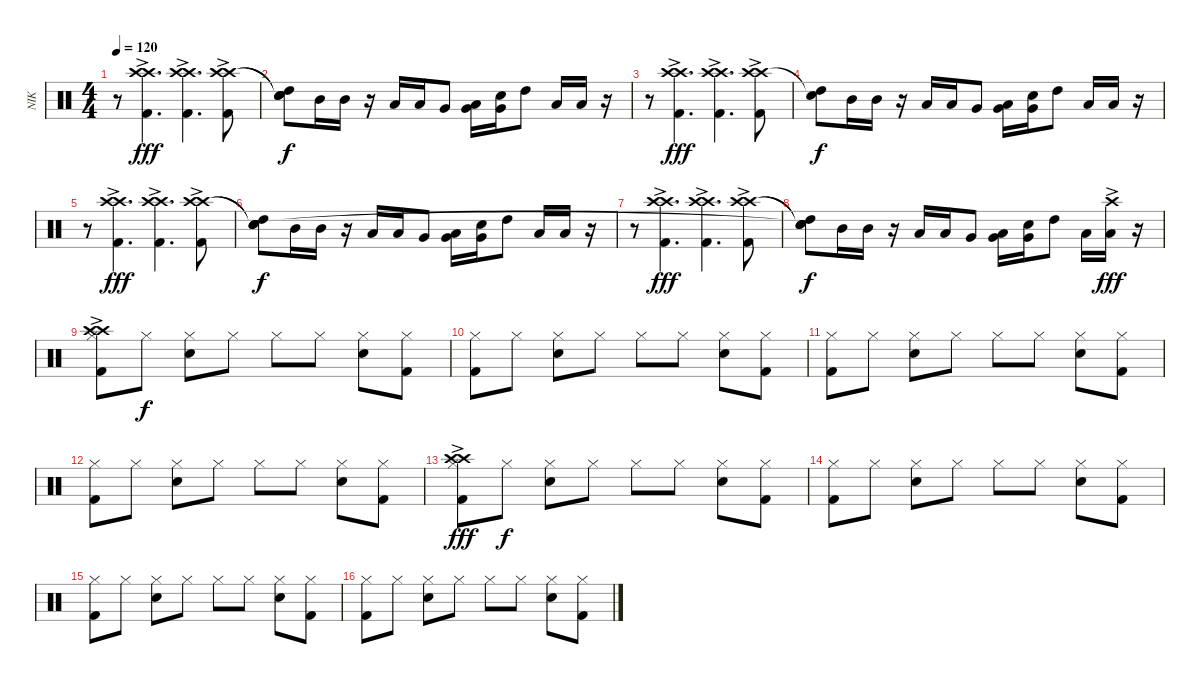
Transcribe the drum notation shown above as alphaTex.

\track ("NIK" "NIK") {instrument percussion}
\staff {score}
\articulation defaults
\ts (4 4)
\tempo 120
\clef neutral
\ks c
r.8{dy f} ("Crash high (hit)"{ac} "Crash high (hit)"{ac} "Kick (hit) 2"{ac}).4{d dy fff} ("Crash high (hit)"{ac} "Crash high (hit)"{ac} "Kick (hit) 2"{ac}).4{d} ("Crash high (hit)"{ac} "Crash high (hit)"{ac} "Kick (hit) 2"{ac}).8 |
("Snare (hit)"{t} "Snare (hit)"{t} "High Tom (hit)" "Snare (hit)").8{dy f} "Mid Tom (hit)".16 "Mid Tom (hit)".16 r.16 "Low Tom (hit)".16 "Low Tom (hit)".16 "Very Low Tom (hit)".8 ("Low Floor Tom (hit)" "Very Low Tom (hit)").16 ("Electric Snare (hit)" "Very Low Tom (hit)").16 "High Tom (hit)".8 "Low Floor Tom (hit)".16 "Low Floor Tom (hit)".16 r.16 |
r.8 ("Crash high (hit)"{ac} "Crash high (hit)"{ac} "Kick (hit) 2"{ac}).4{d dy fff} ("Crash high (hit)"{ac} "Crash high (hit)"{ac} "Kick (hit) 2"{ac}).4{d} ("Crash high (hit)"{ac} "Crash high (hit)"{ac} "Kick (hit) 2"{ac}).8 |
("High Tom (hit)" "Snare (hit)"{t}).8{dy f} "Mid Tom (hit)".16 "Mid Tom (hit)".16 r.16 "Low Tom (hit)".16 "Low Tom (hit)".16 "Very Low Tom (hit)".8 ("Low Floor Tom (hit)" "Very Low Tom (hit)").16 ("Electric Snare (hit)" "Very Low Tom (hit)").16 "High Tom (hit)".8 "Low Floor Tom (hit)".16 "Low Floor Tom (hit)".16 r.16 |
r.8 ("Crash high (hit)"{ac} "Crash high (hit)"{ac} "Kick (hit) 2"{ac}).4{d dy fff} ("Crash high (hit)"{ac} "Crash high (hit)"{ac} "Kick (hit) 2"{ac}).4{d} ("Crash high (hit)"{ac} "Crash high (hit)"{ac} "Kick (hit) 2"{ac}).8 |
("Snare (hit)"{t} "Snare (hit)"{t} "High Tom (hit)" "Snare (hit)").8{dy f} "Mid Tom (hit)".16 "Mid Tom (hit)".16 r.16 "Low Tom (hit)".16 "Low Tom (hit)".16 "Very Low Tom (hit)".8 ("Low Floor Tom (hit)" "Very Low Tom (hit)").16 ("Electric Snare (hit)" "Very Low Tom (hit)").16 "High Tom (hit)".8 "Low Floor Tom (hit)".16 "Low Floor Tom (hit)".16 r.16 |
r.8 ("Crash high (hit)"{ac} "Crash high (hit)"{ac} "Kick (hit) 2"{ac}).4{d dy fff} ("Crash high (hit)"{ac} "Crash high (hit)"{ac} "Kick (hit) 2"{ac}).4{d} ("Crash high (hit)"{ac} "Crash high (hit)"{ac} "Kick (hit) 2"{ac}).8 |
("Snare (hit)"{t} "Snare (hit)"{t} "High Tom (hit)" "Snare (hit)"{t}).8{dy f} "Mid Tom (hit)".16 "Mid Tom (hit)".16 r.16 "Low Tom (hit)".16 "Low Tom (hit)".16 "Very Low Tom (hit)".8 ("Low Floor Tom (hit)" "Very Low Tom (hit)").16 ("Electric Snare (hit)" "Very Low Tom (hit)").16 "High Tom (hit)".8 "Low Floor Tom (hit)".16 ("Crash high (hit)"{ac} "Low Floor Tom (hit)").16{dy fff} r.16 |
("Crash high (hit)"{ac} "Crash high (hit)"{ac} "Hi-Hat (closed)" "Kick (hit) 2").8 "Hi-Hat (closed)".8{dy f} ("Snare (hit) 2" "Hi-Hat (closed)").8 "Hi-Hat (closed)".8 "Hi-Hat (closed)".8 "Hi-Hat (closed)".8 ("Snare (hit) 2" "Hi-Hat (closed)").8 ("Hi-Hat (closed)" "Kick (hit) 2").8 |
("Hi-Hat (closed)" "Kick (hit) 2").8 "Hi-Hat (closed)".8 ("Snare (hit) 2" "Hi-Hat (closed)").8 "Hi-Hat (closed)".8 "Hi-Hat (closed)".8 "Hi-Hat (closed)".8 ("Snare (hit) 2" "Hi-Hat (closed)").8 ("Hi-Hat (closed)" "Kick (hit) 2").8 |
("Hi-Hat (closed)" "Kick (hit) 2").8 "Hi-Hat (closed)".8 ("Snare (hit) 2" "Hi-Hat (closed)").8 "Hi-Hat (closed)".8 "Hi-Hat (closed)".8 "Hi-Hat (closed)".8 ("Snare (hit) 2" "Hi-Hat (closed)").8 ("Hi-Hat (closed)" "Kick (hit) 2").8 |
("Hi-Hat (closed)" "Kick (hit) 2").8 "Hi-Hat (closed)".8 ("Snare (hit) 2" "Hi-Hat (closed)").8 "Hi-Hat (closed)".8 "Hi-Hat (closed)".8 "Hi-Hat (closed)".8 ("Snare (hit) 2" "Hi-Hat (closed)").8 ("Hi-Hat (closed)" "Kick (hit) 2").8 |
("Crash high (hit)"{ac} "Crash high (hit)"{ac} "Hi-Hat (closed)" "Kick (hit) 2").8{dy fff} "Hi-Hat (closed)".8{dy f} ("Snare (hit) 2" "Hi-Hat (closed)").8 "Hi-Hat (closed)".8 "Hi-Hat (closed)".8 "Hi-Hat (closed)".8 ("Snare (hit) 2" "Hi-Hat (closed)").8 ("Hi-Hat (closed)" "Kick (hit) 2").8 |
("Hi-Hat (closed)" "Kick (hit) 2").8 "Hi-Hat (closed)".8 ("Snare (hit) 2" "Hi-Hat (closed)").8 "Hi-Hat (closed)".8 "Hi-Hat (closed)".8 "Hi-Hat (closed)".8 ("Snare (hit) 2" "Hi-Hat (closed)").8 ("Hi-Hat (closed)" "Kick (hit) 2").8 |
("Hi-Hat (closed)" "Kick (hit) 2").8 "Hi-Hat (closed)".8 ("Snare (hit) 2" "Hi-Hat (closed)").8 "Hi-Hat (closed)".8 "Hi-Hat (closed)".8 "Hi-Hat (closed)".8 ("Snare (hit) 2" "Hi-Hat (closed)").8 ("Hi-Hat (closed)" "Kick (hit) 2").8 |
("Hi-Hat (closed)" "Kick (hit) 2").8 "Hi-Hat (closed)".8 ("Snare (hit) 2" "Hi-Hat (closed)").8 "Hi-Hat (closed)".8 "Hi-Hat (closed)".8 "Hi-Hat (closed)".8 ("Snare (hit) 2" "Hi-Hat (closed)").8 ("Hi-Hat (closed)" "Kick (hit) 2").8
